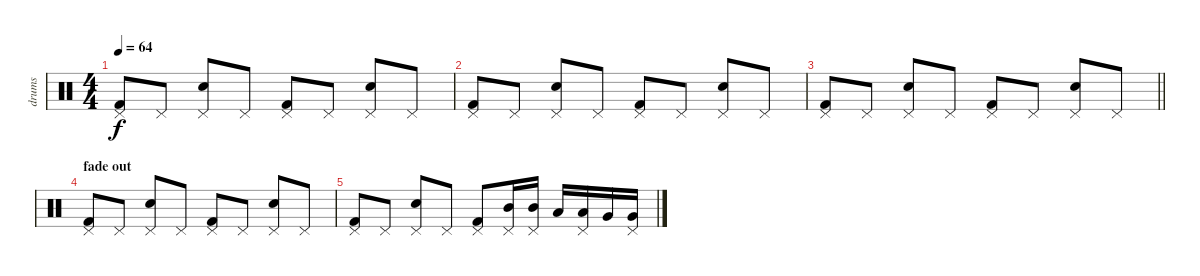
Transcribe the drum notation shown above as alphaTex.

\track ("drums" "drums") {instrument percussion}
\staff {score}
\articulation defaults
\ts (4 4)
\tempo 64
\clef neutral
\ks c
("Kick (hit) 2" "Pedal Hi-Hat (hit)").8{dy f} "Pedal Hi-Hat (hit)".8 ("Electric Snare (hit)" "Pedal Hi-Hat (hit)").8 "Pedal Hi-Hat (hit)".8 ("Kick (hit) 2" "Pedal Hi-Hat (hit)").8 "Pedal Hi-Hat (hit)".8 ("Electric Snare (hit)" "Pedal Hi-Hat (hit)").8 "Pedal Hi-Hat (hit)".8 |
("Kick (hit) 2" "Pedal Hi-Hat (hit)").8 "Pedal Hi-Hat (hit)".8 ("Electric Snare (hit)" "Pedal Hi-Hat (hit)").8 "Pedal Hi-Hat (hit)".8 ("Kick (hit) 2" "Pedal Hi-Hat (hit)").8 "Pedal Hi-Hat (hit)".8 ("Electric Snare (hit)" "Pedal Hi-Hat (hit)").8 "Pedal Hi-Hat (hit)".8 |
\barLineRight lightlight
("Kick (hit) 2" "Pedal Hi-Hat (hit)").8 "Pedal Hi-Hat (hit)".8 ("Electric Snare (hit)" "Pedal Hi-Hat (hit)").8 "Pedal Hi-Hat (hit)".8 ("Kick (hit) 2" "Pedal Hi-Hat (hit)").8 "Pedal Hi-Hat (hit)".8 ("Electric Snare (hit)" "Pedal Hi-Hat (hit)").8 "Pedal Hi-Hat (hit)".8 |
\section ("" "fade out")
("Kick (hit) 2" "Pedal Hi-Hat (hit)").8 "Pedal Hi-Hat (hit)".8 ("Electric Snare (hit)" "Pedal Hi-Hat (hit)").8 "Pedal Hi-Hat (hit)".8 ("Kick (hit) 2" "Pedal Hi-Hat (hit)").8 "Pedal Hi-Hat (hit)".8 ("Electric Snare (hit)" "Pedal Hi-Hat (hit)").8 "Pedal Hi-Hat (hit)".8 |
("Kick (hit) 2" "Pedal Hi-Hat (hit)").8 "Pedal Hi-Hat (hit)".8 ("Electric Snare (hit)" "Pedal Hi-Hat (hit)").8 "Pedal Hi-Hat (hit)".8 ("Kick (hit) 2" "Pedal Hi-Hat (hit)").8 ("Mid Tom (hit)" "Pedal Hi-Hat (hit)").16 ("Mid Tom (hit)" "Pedal Hi-Hat (hit)").16 "Low Tom (hit)".16 ("Low Tom (hit)" "Pedal Hi-Hat (hit)").16 "Very Low Tom (hit)".16 ("Very Low Tom (hit)" "Pedal Hi-Hat (hit)").16
